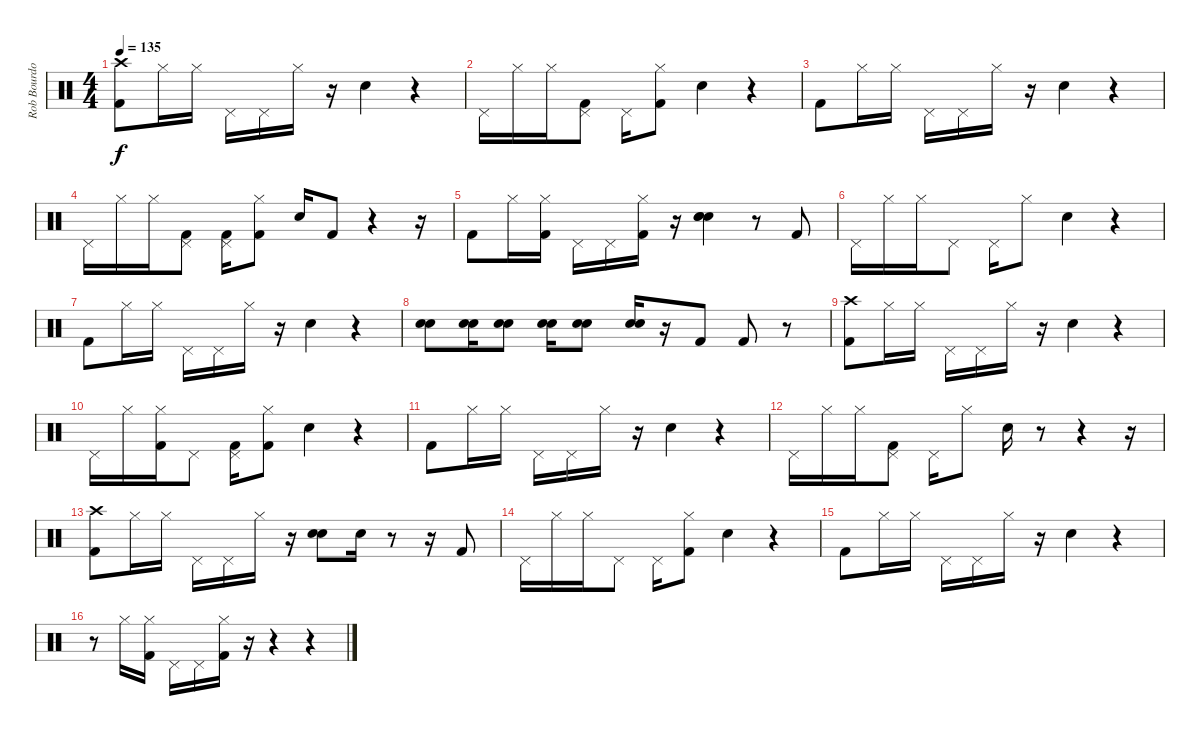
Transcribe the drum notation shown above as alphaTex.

\track ("Rob Bourdon (Drums)" "Rob Bourdo") {instrument percussion}
\staff {score}
\articulation defaults
\ts (4 4)
\tempo 135
\clef neutral
\ks c
("Crash high (hit)" "Kick (hit) 2").8{dy f} "Hi-Hat (closed)".16 "Hi-Hat (closed)".16 "Pedal Hi-Hat (hit)".16 "Pedal Hi-Hat (hit)".16 "Hi-Hat (closed)".16 r.16 "Electric Snare (hit)".4 r.4 |
"Pedal Hi-Hat (hit)".16 "Hi-Hat (closed)".16 "Hi-Hat (closed)".16 ("Pedal Hi-Hat (hit)" "Kick (hit) 2").8 "Pedal Hi-Hat (hit)".16 ("Hi-Hat (closed)" "Kick (hit) 2").8 "Electric Snare (hit)".4 r.4 |
"Kick (hit) 2".8 "Hi-Hat (closed)".16 "Hi-Hat (closed)".16 "Pedal Hi-Hat (hit)".16 "Pedal Hi-Hat (hit)".16 "Hi-Hat (closed)".16 r.16 "Electric Snare (hit)".4 r.4 |
"Pedal Hi-Hat (hit)".16 "Hi-Hat (closed)".16 "Hi-Hat (closed)".16 ("Pedal Hi-Hat (hit)" "Kick (hit) 2").8 ("Pedal Hi-Hat (hit)" "Kick (hit) 2").16 ("Hi-Hat (closed)" "Kick (hit) 2").8 "Electric Snare (hit)".16 "Kick (hit) 2".8 r.4 r.16 |
"Kick (hit) 2".8 "Hi-Hat (closed)".16 ("Hi-Hat (closed)" "Kick (hit) 2").16 "Pedal Hi-Hat (hit)".16 "Pedal Hi-Hat (hit)".16 ("Hi-Hat (closed)" "Kick (hit) 2").16 r.16 ("Electric Snare (hit)" "Snare (hit) 2" "Electric Snare (hit)").4{volume 16} r.8{volume 14} "Kick (hit) 2".8 |
"Pedal Hi-Hat (hit)".16 "Hi-Hat (closed)".16 "Hi-Hat (closed)".16 "Pedal Hi-Hat (hit)".8 "Pedal Hi-Hat (hit)".16 "Hi-Hat (closed)".8 "Electric Snare (hit)".4 r.4 |
"Kick (hit) 2".8 "Hi-Hat (closed)".16 "Hi-Hat (closed)".16 "Pedal Hi-Hat (hit)".16 "Pedal Hi-Hat (hit)".16 "Hi-Hat (closed)".16 r.16 "Electric Snare (hit)".4 r.4 |
("Snare (hit) 2" "Electric Snare (hit)").8 ("Snare (hit) 2" "Electric Snare (hit)").16 ("Snare (hit) 2" "Electric Snare (hit)").8 ("Snare (hit) 2" "Electric Snare (hit)").16 ("Snare (hit) 2" "Electric Snare (hit)").8 ("Snare (hit) 2" "Electric Snare (hit)").16 r.16 "Kick (hit) 2".8 "Kick (hit) 2".8 r.8 |
("Crash high (hit)" "Kick (hit) 2").8 "Hi-Hat (closed)".16 "Hi-Hat (closed)".16 "Pedal Hi-Hat (hit)".16 "Pedal Hi-Hat (hit)".16 "Hi-Hat (closed)".16 r.16 "Electric Snare (hit)".4 r.4 |
"Pedal Hi-Hat (hit)".16 "Hi-Hat (closed)".16 ("Hi-Hat (closed)" "Kick (hit) 2").16 "Pedal Hi-Hat (hit)".8 ("Pedal Hi-Hat (hit)" "Kick (hit) 2").16 ("Hi-Hat (closed)" "Kick (hit) 2").8 "Electric Snare (hit)".4 r.4 |
"Kick (hit) 2".8 "Hi-Hat (closed)".16 "Hi-Hat (closed)".16 "Pedal Hi-Hat (hit)".16 "Pedal Hi-Hat (hit)".16 "Hi-Hat (closed)".16 r.16 "Electric Snare (hit)".4 r.4 |
"Pedal Hi-Hat (hit)".16 "Hi-Hat (closed)".16 "Hi-Hat (closed)".16 ("Pedal Hi-Hat (hit)" "Kick (hit) 2").8 "Pedal Hi-Hat (hit)".16 "Hi-Hat (closed)".8 "Electric Snare (hit)".16 r.8 r.4 r.16 |
("Crash high (hit)" "Kick (hit) 2").8 "Hi-Hat (closed)".16 "Hi-Hat (closed)".16 "Pedal Hi-Hat (hit)".16 "Pedal Hi-Hat (hit)".16 "Hi-Hat (closed)".16 r.16 ("Electric Snare (hit)" "Electric Snare (hit)").8 "Electric Snare (hit)".16 r.8 r.16 "Kick (hit) 2".8 |
"Pedal Hi-Hat (hit)".16 "Hi-Hat (closed)".16 "Hi-Hat (closed)".16 "Pedal Hi-Hat (hit)".8 "Pedal Hi-Hat (hit)".16 ("Hi-Hat (closed)" "Kick (hit) 2").8 "Electric Snare (hit)".4 r.4 |
"Kick (hit) 2".8 "Hi-Hat (closed)".16 "Hi-Hat (closed)".16 "Pedal Hi-Hat (hit)".16 "Pedal Hi-Hat (hit)".16 "Hi-Hat (closed)".16 r.16 "Electric Snare (hit)".4 r.4 |
r.8 "Hi-Hat (closed)".16 ("Hi-Hat (closed)" "Kick (hit) 2").16 "Pedal Hi-Hat (hit)".16 "Pedal Hi-Hat (hit)".16 ("Hi-Hat (closed)" "Kick (hit) 2").16 r.16 r.4 r.4
